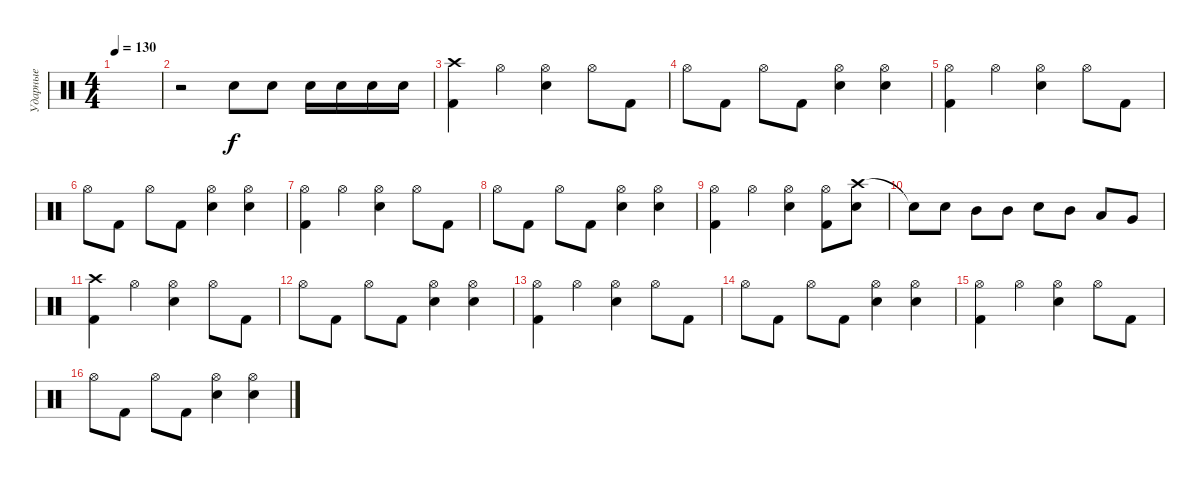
\track ("Ударные" "Ударные") {instrument percussion}
\staff {score}
\articulation defaults
\ts (4 4)
\tempo 130
\clef neutral
\ks c
|
r.2 "Snare (hit) 2".8 "Snare (hit) 2".8 "Snare (hit) 2".16 "Snare (hit) 2".16 "Snare (hit) 2".16 "Snare (hit) 2".16 |
("Crash high (hit)" "Kick (hit) 2").4 "Hi-Hat (open)".4 ("Hi-Hat (open)" "Snare (hit) 2").4 "Hi-Hat (open)".8 "Kick (hit) 2".8 |
"Hi-Hat (open)".8 "Kick (hit) 2".8 "Hi-Hat (open)".8 "Kick (hit) 2".8 ("Hi-Hat (open)" "Snare (hit) 2").4 ("Hi-Hat (open)" "Snare (hit) 2").4 |
("Hi-Hat (open)" "Kick (hit) 2").4 "Hi-Hat (open)".4 ("Hi-Hat (open)" "Snare (hit) 2").4 "Hi-Hat (open)".8 "Kick (hit) 2".8 |
"Hi-Hat (open)".8 "Kick (hit) 2".8 "Hi-Hat (open)".8 "Kick (hit) 2".8 ("Hi-Hat (open)" "Snare (hit) 2").4 ("Hi-Hat (open)" "Snare (hit) 2").4 |
("Hi-Hat (open)" "Kick (hit) 2").4 "Hi-Hat (open)".4 ("Hi-Hat (open)" "Snare (hit) 2").4 "Hi-Hat (open)".8 "Kick (hit) 2".8 |
"Hi-Hat (open)".8 "Kick (hit) 2".8 "Hi-Hat (open)".8 "Kick (hit) 2".8 ("Hi-Hat (open)" "Snare (hit) 2").4 ("Hi-Hat (open)" "Snare (hit) 2").4 |
("Hi-Hat (open)" "Kick (hit) 2").4 "Hi-Hat (open)".4 ("Hi-Hat (open)" "Snare (hit) 2").4 ("Hi-Hat (open)" "Kick (hit) 2").8 ("Crash high (hit)" "Snare (hit) 2").8 |
"Snare (hit)"{t}.8 "Snare (hit) 2".8 "Mid Tom (hit)".8 "Mid Tom (hit)".8 "Snare (hit) 2".8 "Mid Tom (hit)".8 "Low Tom (hit)".8 "Very Low Tom (hit)".8 |
("Crash high (hit)" "Kick (hit) 2").4 "Hi-Hat (open)".4 ("Hi-Hat (open)" "Snare (hit) 2").4 "Hi-Hat (open)".8 "Kick (hit) 2".8 |
"Hi-Hat (open)".8 "Kick (hit) 2".8 "Hi-Hat (open)".8 "Kick (hit) 2".8 ("Hi-Hat (open)" "Snare (hit) 2").4 ("Hi-Hat (open)" "Snare (hit) 2").4 |
("Hi-Hat (open)" "Kick (hit) 2").4 "Hi-Hat (open)".4 ("Hi-Hat (open)" "Snare (hit) 2").4 "Hi-Hat (open)".8 "Kick (hit) 2".8 |
"Hi-Hat (open)".8 "Kick (hit) 2".8 "Hi-Hat (open)".8 "Kick (hit) 2".8 ("Hi-Hat (open)" "Snare (hit) 2").4 ("Hi-Hat (open)" "Snare (hit) 2").4 |
("Hi-Hat (open)" "Kick (hit) 2").4 "Hi-Hat (open)".4 ("Hi-Hat (open)" "Snare (hit) 2").4 "Hi-Hat (open)".8 "Kick (hit) 2".8 |
"Hi-Hat (open)".8 "Kick (hit) 2".8 "Hi-Hat (open)".8 "Kick (hit) 2".8 ("Hi-Hat (open)" "Snare (hit) 2").4 ("Hi-Hat (open)" "Snare (hit) 2").4
